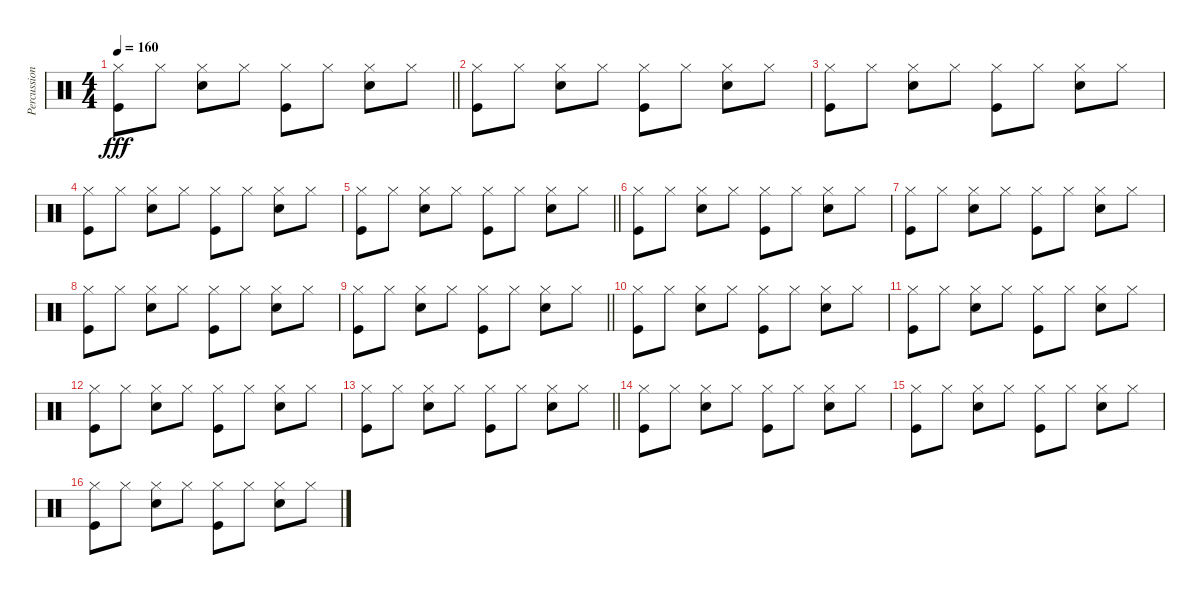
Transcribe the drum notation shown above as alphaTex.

\track ("Percussion" "Percussion") {instrument percussion}
\staff {score}
\articulation defaults
\ts (4 4)
\tempo 160
\clef neutral
\barLineRight lightlight
\ks c
("Hi-Hat (closed)" "Kick (hit)").8{dy fff} "Hi-Hat (closed)".8 ("Hi-Hat (closed)" "Snare (hit) 2").8 "Hi-Hat (closed)".8 ("Hi-Hat (closed)" "Kick (hit)").8 "Hi-Hat (closed)".8 ("Hi-Hat (closed)" "Snare (hit) 2").8 "Hi-Hat (closed)".8 |
\section ("" "")
("Hi-Hat (closed)" "Kick (hit)").8 "Hi-Hat (closed)".8 ("Hi-Hat (closed)" "Snare (hit) 2").8 "Hi-Hat (closed)".8 ("Hi-Hat (closed)" "Kick (hit)").8 "Hi-Hat (closed)".8 ("Hi-Hat (closed)" "Snare (hit) 2").8 "Hi-Hat (closed)".8 |
("Hi-Hat (closed)" "Kick (hit)").8 "Hi-Hat (closed)".8 ("Hi-Hat (closed)" "Snare (hit) 2").8 "Hi-Hat (closed)".8 ("Hi-Hat (closed)" "Kick (hit)").8 "Hi-Hat (closed)".8 ("Hi-Hat (closed)" "Snare (hit) 2").8 "Hi-Hat (closed)".8 |
("Hi-Hat (closed)" "Kick (hit)").8 "Hi-Hat (closed)".8 ("Hi-Hat (closed)" "Snare (hit) 2").8 "Hi-Hat (closed)".8 ("Hi-Hat (closed)" "Kick (hit)").8 "Hi-Hat (closed)".8 ("Hi-Hat (closed)" "Snare (hit) 2").8 "Hi-Hat (closed)".8 |
\barLineRight lightlight
("Hi-Hat (closed)" "Kick (hit)").8 "Hi-Hat (closed)".8 ("Hi-Hat (closed)" "Snare (hit) 2").8 "Hi-Hat (closed)".8 ("Hi-Hat (closed)" "Kick (hit)").8 "Hi-Hat (closed)".8 ("Hi-Hat (closed)" "Snare (hit) 2").8 "Hi-Hat (closed)".8 |
\section ("" "")
("Hi-Hat (closed)" "Kick (hit)").8 "Hi-Hat (closed)".8 ("Hi-Hat (closed)" "Snare (hit) 2").8 "Hi-Hat (closed)".8 ("Hi-Hat (closed)" "Kick (hit)").8 "Hi-Hat (closed)".8 ("Hi-Hat (closed)" "Snare (hit) 2").8 "Hi-Hat (closed)".8 |
("Hi-Hat (closed)" "Kick (hit)").8 "Hi-Hat (closed)".8 ("Hi-Hat (closed)" "Snare (hit) 2").8 "Hi-Hat (closed)".8 ("Hi-Hat (closed)" "Kick (hit)").8 "Hi-Hat (closed)".8 ("Hi-Hat (closed)" "Snare (hit) 2").8 "Hi-Hat (closed)".8 |
("Hi-Hat (closed)" "Kick (hit)").8 "Hi-Hat (closed)".8 ("Hi-Hat (closed)" "Snare (hit) 2").8 "Hi-Hat (closed)".8 ("Hi-Hat (closed)" "Kick (hit)").8 "Hi-Hat (closed)".8 ("Hi-Hat (closed)" "Snare (hit) 2").8 "Hi-Hat (closed)".8 |
\barLineRight lightlight
("Hi-Hat (closed)" "Kick (hit)").8 "Hi-Hat (closed)".8 ("Hi-Hat (closed)" "Snare (hit) 2").8 "Hi-Hat (closed)".8 ("Hi-Hat (closed)" "Kick (hit)").8 "Hi-Hat (closed)".8 ("Hi-Hat (closed)" "Snare (hit) 2").8 "Hi-Hat (closed)".8 |
\section ("" "")
("Hi-Hat (closed)" "Kick (hit)").8 "Hi-Hat (closed)".8 ("Hi-Hat (closed)" "Snare (hit) 2").8 "Hi-Hat (closed)".8 ("Hi-Hat (closed)" "Kick (hit)").8 "Hi-Hat (closed)".8 ("Hi-Hat (closed)" "Snare (hit) 2").8 "Hi-Hat (closed)".8 |
("Hi-Hat (closed)" "Kick (hit)").8 "Hi-Hat (closed)".8 ("Hi-Hat (closed)" "Snare (hit) 2").8 "Hi-Hat (closed)".8 ("Hi-Hat (closed)" "Kick (hit)").8 "Hi-Hat (closed)".8 ("Hi-Hat (closed)" "Snare (hit) 2").8 "Hi-Hat (closed)".8 |
("Hi-Hat (closed)" "Kick (hit)").8 "Hi-Hat (closed)".8 ("Hi-Hat (closed)" "Snare (hit) 2").8 "Hi-Hat (closed)".8 ("Hi-Hat (closed)" "Kick (hit)").8 "Hi-Hat (closed)".8 ("Hi-Hat (closed)" "Snare (hit) 2").8 "Hi-Hat (closed)".8 |
\barLineRight lightlight
("Hi-Hat (closed)" "Kick (hit)").8 "Hi-Hat (closed)".8 ("Hi-Hat (closed)" "Snare (hit) 2").8 "Hi-Hat (closed)".8 ("Hi-Hat (closed)" "Kick (hit)").8 "Hi-Hat (closed)".8 ("Hi-Hat (closed)" "Snare (hit) 2").8 "Hi-Hat (closed)".8 |
\section ("" "")
("Hi-Hat (closed)" "Kick (hit)").8 "Hi-Hat (closed)".8 ("Hi-Hat (closed)" "Snare (hit) 2").8 "Hi-Hat (closed)".8 ("Hi-Hat (closed)" "Kick (hit)").8 "Hi-Hat (closed)".8 ("Hi-Hat (closed)" "Snare (hit) 2").8 "Hi-Hat (closed)".8 |
("Hi-Hat (closed)" "Kick (hit)").8 "Hi-Hat (closed)".8 ("Hi-Hat (closed)" "Snare (hit) 2").8 "Hi-Hat (closed)".8 ("Hi-Hat (closed)" "Kick (hit)").8 "Hi-Hat (closed)".8 ("Hi-Hat (closed)" "Snare (hit) 2").8 "Hi-Hat (closed)".8 |
("Hi-Hat (closed)" "Kick (hit)").8 "Hi-Hat (closed)".8 ("Hi-Hat (closed)" "Snare (hit) 2").8 "Hi-Hat (closed)".8 ("Hi-Hat (closed)" "Kick (hit)").8 "Hi-Hat (closed)".8 ("Hi-Hat (closed)" "Snare (hit) 2").8 "Hi-Hat (closed)".8
